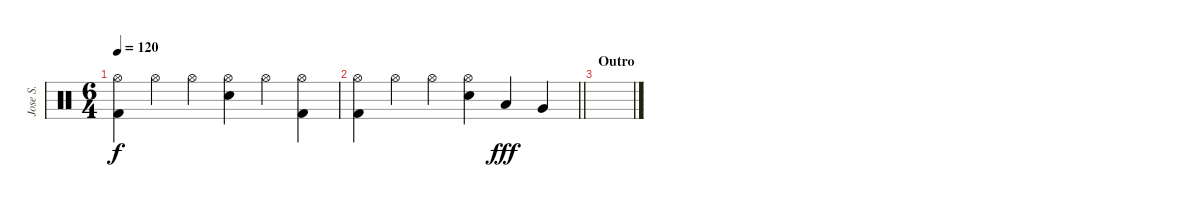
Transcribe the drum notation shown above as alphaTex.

\track ("Jose S." "Jose S.") {instrument percussion}
\staff {score}
\articulation defaults
\ts (6 4)
\tempo 120
\clef neutral
\ks c
("Hi-Hat (open)" "Kick (hit) 2").4{dy f} "Hi-Hat (open)".4 "Hi-Hat (open)".4 ("Hi-Hat (open)" "Snare (hit) 2").4 "Hi-Hat (open)".4 ("Hi-Hat (open)" "Kick (hit) 2").4 |
\barLineRight lightlight
("Hi-Hat (open)" "Kick (hit) 2").4 "Hi-Hat (open)".4 "Hi-Hat (open)".4 ("Hi-Hat (open)" "Snare (hit) 2").4 "Low Tom (hit)".4{dy fff} "Very Low Tom (hit)".4 |
\section ("" "Outro")
